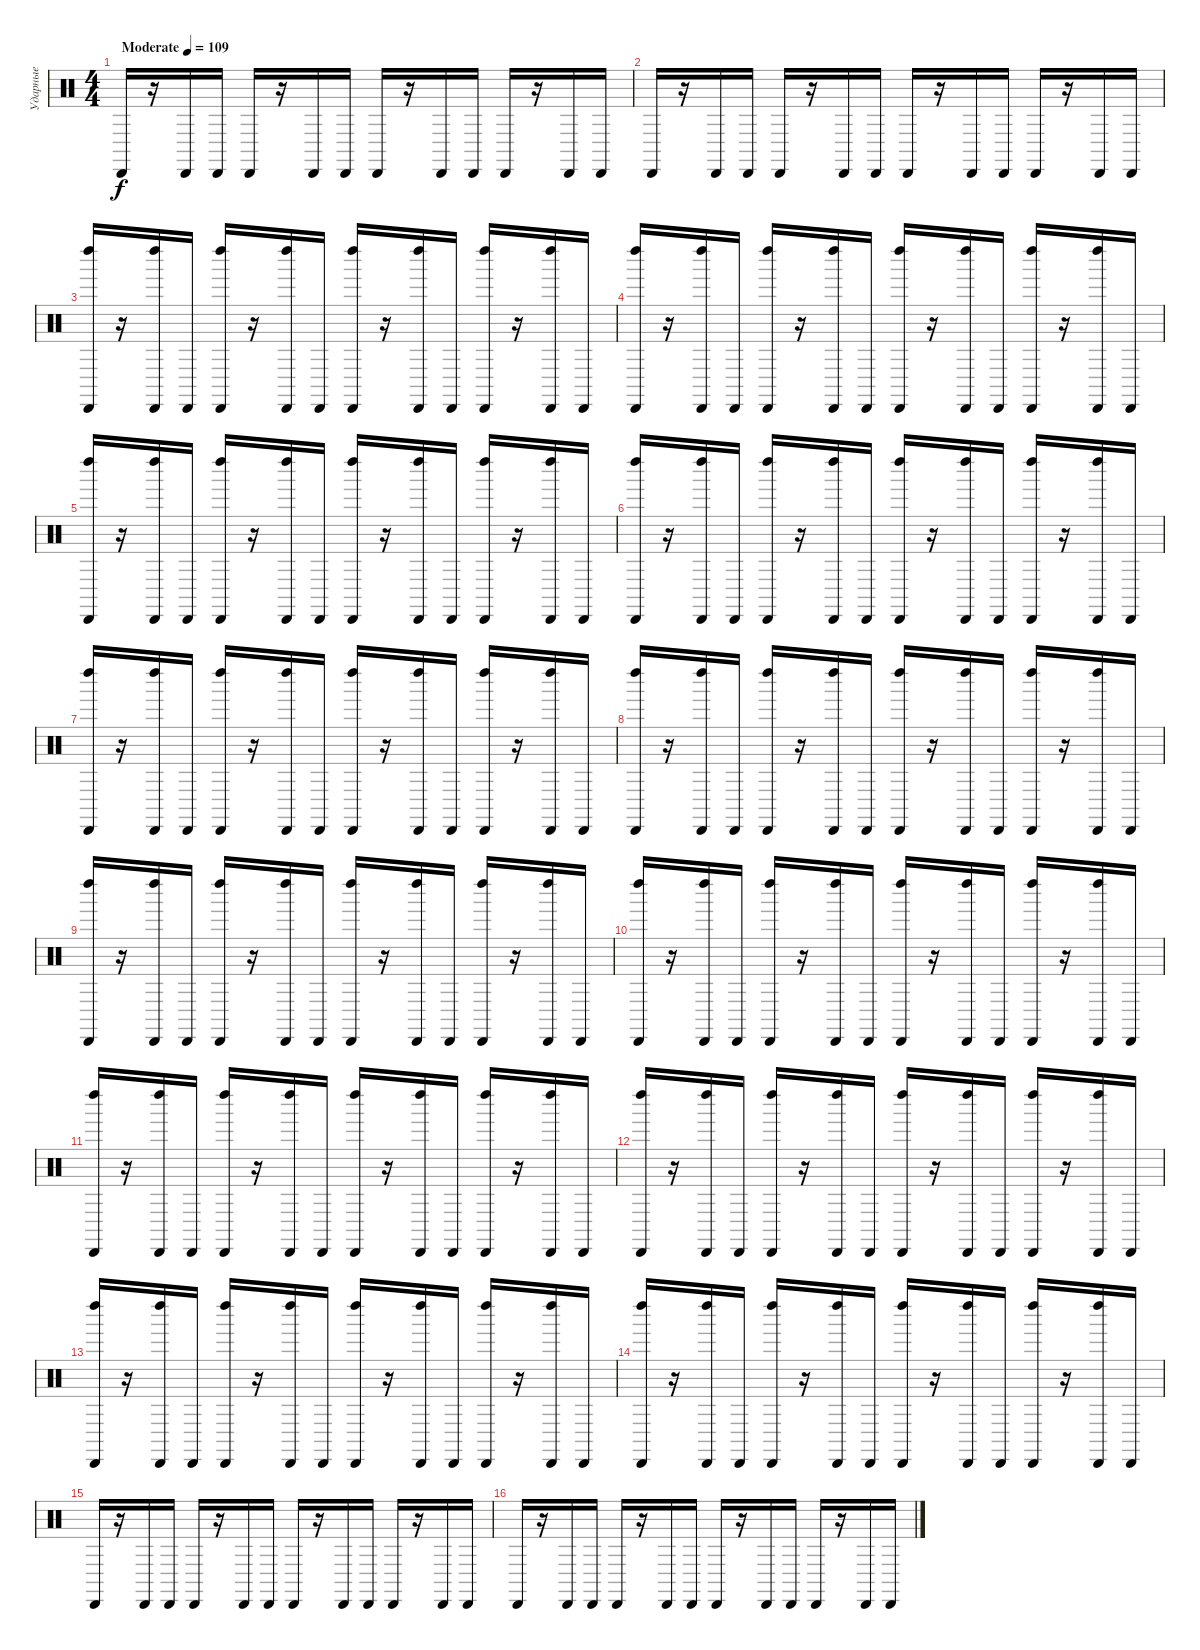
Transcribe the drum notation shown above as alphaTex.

\track ("Ударные" "Ударные") {instrument percussion}
\staff {score}
\articulation defaults
\ts (4 4)
\tempo (109 "Moderate")
\clef neutral
\ks c "Cabasa (hit)".16{dy f}
r.16 "Cabasa (hit)".16 "Cabasa (hit)".16 "Cabasa (hit)".16 r.16 "Cabasa (hit)".16 "Cabasa (hit)".16 "Cabasa (hit)".16 r.16 "Cabasa (hit)".16 "Cabasa (hit)".16 "Cabasa (hit)".16 r.16 "Cabasa (hit)".16 "Cabasa (hit)".16 |
"Cabasa (hit)".16 r.16 "Cabasa (hit)".16 "Cabasa (hit)".16 "Cabasa (hit)".16 r.16 "Cabasa (hit)".16 "Cabasa (hit)".16 "Cabasa (hit)".16 r.16 "Cabasa (hit)".16 "Cabasa (hit)".16 "Cabasa (hit)".16 r.16 "Cabasa (hit)".16 "Cabasa (hit)".16 |
("Left Maraca (hit)" "Cabasa (hit)").16 r.16 ("Left Maraca (hit)" "Cabasa (hit)").16 "Cabasa (hit)".16 ("Left Maraca (hit)" "Cabasa (hit)").16 r.16 ("Left Maraca (hit)" "Cabasa (hit)").16 "Cabasa (hit)".16 ("Left Maraca (hit)" "Cabasa (hit)").16 r.16 ("Left Maraca (hit)" "Cabasa (hit)").16 "Cabasa (hit)".16 ("Left Maraca (hit)" "Cabasa (hit)").16 r.16 ("Left Maraca (hit)" "Cabasa (hit)").16 "Cabasa (hit)".16 |
("Left Maraca (hit)" "Cabasa (hit)").16 r.16 ("Left Maraca (hit)" "Cabasa (hit)").16 "Cabasa (hit)".16 ("Left Maraca (hit)" "Cabasa (hit)").16 r.16 ("Left Maraca (hit)" "Cabasa (hit)").16 "Cabasa (hit)".16 ("Left Maraca (hit)" "Cabasa (hit)").16 r.16 ("Left Maraca (hit)" "Cabasa (hit)").16 "Cabasa (hit)".16 ("Left Maraca (hit)" "Cabasa (hit)").16 r.16 ("Left Maraca (hit)" "Cabasa (hit)").16 "Cabasa (hit)".16 |
("Left Maraca (hit)" "Cabasa (hit)").16 r.16 ("Left Maraca (hit)" "Cabasa (hit)").16 "Cabasa (hit)".16 ("Left Maraca (hit)" "Cabasa (hit)").16 r.16 ("Left Maraca (hit)" "Cabasa (hit)").16 "Cabasa (hit)".16 ("Left Maraca (hit)" "Cabasa (hit)").16 r.16 ("Left Maraca (hit)" "Cabasa (hit)").16 "Cabasa (hit)".16 ("Left Maraca (hit)" "Cabasa (hit)").16 r.16 ("Left Maraca (hit)" "Cabasa (hit)").16 "Cabasa (hit)".16 |
("Left Maraca (hit)" "Cabasa (hit)").16 r.16 ("Left Maraca (hit)" "Cabasa (hit)").16 "Cabasa (hit)".16 ("Left Maraca (hit)" "Cabasa (hit)").16 r.16 ("Left Maraca (hit)" "Cabasa (hit)").16 "Cabasa (hit)".16 ("Left Maraca (hit)" "Cabasa (hit)").16 r.16 ("Left Maraca (hit)" "Cabasa (hit)").16 "Cabasa (hit)".16 ("Left Maraca (hit)" "Cabasa (hit)").16 r.16 ("Left Maraca (hit)" "Cabasa (hit)").16 "Cabasa (hit)".16 |
("Left Maraca (hit)" "Cabasa (hit)").16 r.16 ("Left Maraca (hit)" "Cabasa (hit)").16 "Cabasa (hit)".16 ("Left Maraca (hit)" "Cabasa (hit)").16 r.16 ("Left Maraca (hit)" "Cabasa (hit)").16 "Cabasa (hit)".16 ("Left Maraca (hit)" "Cabasa (hit)").16 r.16 ("Left Maraca (hit)" "Cabasa (hit)").16 "Cabasa (hit)".16 ("Left Maraca (hit)" "Cabasa (hit)").16 r.16 ("Left Maraca (hit)" "Cabasa (hit)").16 "Cabasa (hit)".16 |
("Left Maraca (hit)" "Cabasa (hit)").16 r.16 ("Left Maraca (hit)" "Cabasa (hit)").16 "Cabasa (hit)".16 ("Left Maraca (hit)" "Cabasa (hit)").16 r.16 ("Left Maraca (hit)" "Cabasa (hit)").16 "Cabasa (hit)".16 ("Left Maraca (hit)" "Cabasa (hit)").16 r.16 ("Left Maraca (hit)" "Cabasa (hit)").16 "Cabasa (hit)".16 ("Left Maraca (hit)" "Cabasa (hit)").16 r.16 ("Left Maraca (hit)" "Cabasa (hit)").16 "Cabasa (hit)".16 |
("Left Maraca (hit)" "Cabasa (hit)").16 r.16 ("Left Maraca (hit)" "Cabasa (hit)").16 "Cabasa (hit)".16 ("Left Maraca (hit)" "Cabasa (hit)").16 r.16 ("Left Maraca (hit)" "Cabasa (hit)").16 "Cabasa (hit)".16 ("Left Maraca (hit)" "Cabasa (hit)").16 r.16 ("Left Maraca (hit)" "Cabasa (hit)").16 "Cabasa (hit)".16 ("Left Maraca (hit)" "Cabasa (hit)").16 r.16 ("Left Maraca (hit)" "Cabasa (hit)").16 "Cabasa (hit)".16 |
("Left Maraca (hit)" "Cabasa (hit)").16 r.16 ("Left Maraca (hit)" "Cabasa (hit)").16 "Cabasa (hit)".16 ("Left Maraca (hit)" "Cabasa (hit)").16 r.16 ("Left Maraca (hit)" "Cabasa (hit)").16 "Cabasa (hit)".16 ("Left Maraca (hit)" "Cabasa (hit)").16 r.16 ("Left Maraca (hit)" "Cabasa (hit)").16 "Cabasa (hit)".16 ("Left Maraca (hit)" "Cabasa (hit)").16 r.16 ("Left Maraca (hit)" "Cabasa (hit)").16 "Cabasa (hit)".16 |
("Left Maraca (hit)" "Cabasa (hit)").16 r.16 ("Left Maraca (hit)" "Cabasa (hit)").16 "Cabasa (hit)".16 ("Left Maraca (hit)" "Cabasa (hit)").16 r.16 ("Left Maraca (hit)" "Cabasa (hit)").16 "Cabasa (hit)".16 ("Left Maraca (hit)" "Cabasa (hit)").16 r.16 ("Left Maraca (hit)" "Cabasa (hit)").16 "Cabasa (hit)".16 ("Left Maraca (hit)" "Cabasa (hit)").16 r.16 ("Left Maraca (hit)" "Cabasa (hit)").16 "Cabasa (hit)".16 |
("Left Maraca (hit)" "Cabasa (hit)").16 r.16 ("Left Maraca (hit)" "Cabasa (hit)").16 "Cabasa (hit)".16 ("Left Maraca (hit)" "Cabasa (hit)").16 r.16 ("Left Maraca (hit)" "Cabasa (hit)").16 "Cabasa (hit)".16 ("Left Maraca (hit)" "Cabasa (hit)").16 r.16 ("Left Maraca (hit)" "Cabasa (hit)").16 "Cabasa (hit)".16 ("Left Maraca (hit)" "Cabasa (hit)").16 r.16 ("Left Maraca (hit)" "Cabasa (hit)").16 "Cabasa (hit)".16 |
("Left Maraca (hit)" "Cabasa (hit)").16 r.16 ("Left Maraca (hit)" "Cabasa (hit)").16 "Cabasa (hit)".16 ("Left Maraca (hit)" "Cabasa (hit)").16 r.16 ("Left Maraca (hit)" "Cabasa (hit)").16 "Cabasa (hit)".16 ("Left Maraca (hit)" "Cabasa (hit)").16 r.16 ("Left Maraca (hit)" "Cabasa (hit)").16 "Cabasa (hit)".16 ("Left Maraca (hit)" "Cabasa (hit)").16 r.16 ("Left Maraca (hit)" "Cabasa (hit)").16 "Cabasa (hit)".16 |
("Left Maraca (hit)" "Cabasa (hit)").16 r.16 ("Left Maraca (hit)" "Cabasa (hit)").16 "Cabasa (hit)".16 ("Left Maraca (hit)" "Cabasa (hit)").16 r.16 ("Left Maraca (hit)" "Cabasa (hit)").16 "Cabasa (hit)".16 ("Left Maraca (hit)" "Cabasa (hit)").16 r.16 ("Left Maraca (hit)" "Cabasa (hit)").16 "Cabasa (hit)".16 ("Left Maraca (hit)" "Cabasa (hit)").16 r.16 ("Left Maraca (hit)" "Cabasa (hit)").16 "Cabasa (hit)".16 |
"Cabasa (hit)".16 r.16 "Cabasa (hit)".16 "Cabasa (hit)".16 "Cabasa (hit)".16 r.16 "Cabasa (hit)".16 "Cabasa (hit)".16 "Cabasa (hit)".16 r.16 "Cabasa (hit)".16 "Cabasa (hit)".16 "Cabasa (hit)".16 r.16 "Cabasa (hit)".16 "Cabasa (hit)".16 |
"Cabasa (hit)".16 r.16 "Cabasa (hit)".16 "Cabasa (hit)".16 "Cabasa (hit)".16 r.16 "Cabasa (hit)".16 "Cabasa (hit)".16 "Cabasa (hit)".16 r.16 "Cabasa (hit)".16 "Cabasa (hit)".16 "Cabasa (hit)".16 r.16 "Cabasa (hit)".16 "Cabasa (hit)".16
